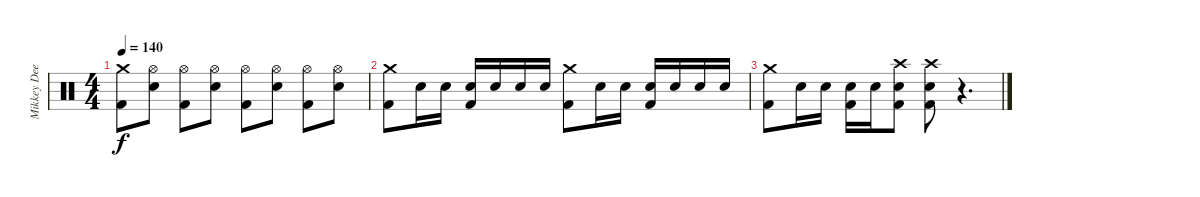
\track ("Mikkey Dee" "Mikkey Dee") {instrument percussion}
\staff {score}
\articulation defaults
\ts (4 4)
\tempo 140
\clef neutral
\ks c
("Crash medium (hit)" "Kick (hit) 2").8{dy f} ("Hi-Hat (open)" "Snare (hit) 2").8 ("Hi-Hat (open)" "Kick (hit) 2").8 ("Hi-Hat (open)" "Snare (hit) 2").8 ("Hi-Hat (open)" "Kick (hit) 2").8 ("Hi-Hat (open)" "Snare (hit) 2").8 ("Hi-Hat (open)" "Kick (hit) 2").8 ("Hi-Hat (open)" "Snare (hit) 2").8 |
("Crash medium (hit)" "Kick (hit) 2").8 "Electric Snare (hit)".16 "Electric Snare (hit)".16 ("Electric Snare (hit)" "Kick (hit) 2").16 "Electric Snare (hit)".16 "Electric Snare (hit)".16 "Electric Snare (hit)".16 ("Crash medium (hit)" "Kick (hit) 2").8 "Electric Snare (hit)".16 "Electric Snare (hit)".16 ("Electric Snare (hit)" "Kick (hit) 2").16 "Electric Snare (hit)".16 "Electric Snare (hit)".16 "Electric Snare (hit)".16 |
("Crash medium (hit)" "Kick (hit) 2").8 "Electric Snare (hit)".16 "Electric Snare (hit)".16 ("Electric Snare (hit)" "Kick (hit) 2").16 "Electric Snare (hit)".16 ("Crash high (hit)" "Electric Snare (hit)" "Kick (hit) 2").8 ("Crash high (hit)" "Electric Snare (hit)" "Kick (hit) 2").8 r.4{d}
